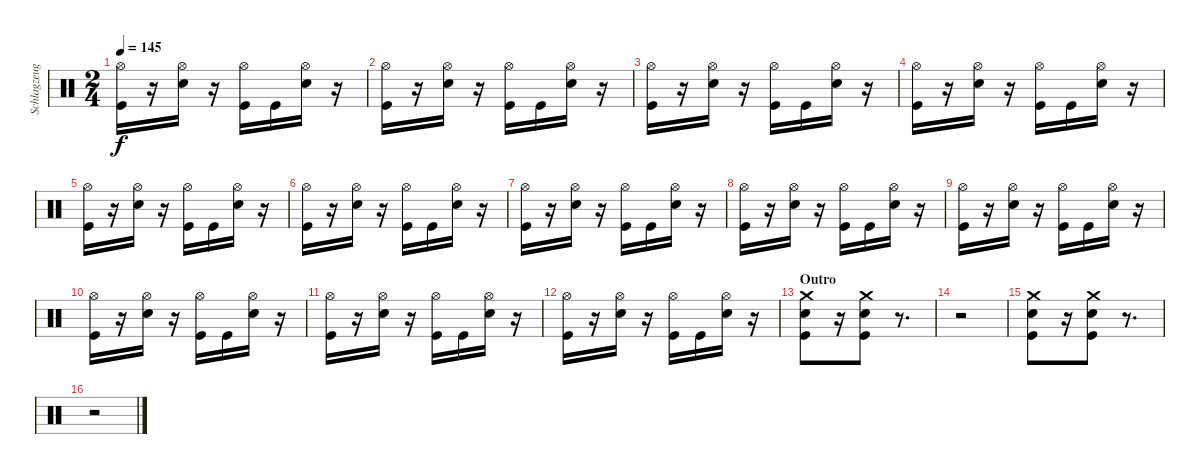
\track ("Schlagzeug - Bela B." "Schlagzeug") {instrument percussion}
\staff {score}
\articulation defaults
\ts (2 4)
\tempo 145
\clef neutral
\ks c
("Kick (hit)" "Hi-Hat (open)").16{dy f} r.16 ("Electric Snare (hit)" "Hi-Hat (open)").16 r.16 ("Kick (hit)" "Hi-Hat (open)").16 "Kick (hit)".16 ("Electric Snare (hit)" "Hi-Hat (open)").16 r.16 |
("Kick (hit)" "Hi-Hat (open)").16 r.16 ("Electric Snare (hit)" "Hi-Hat (open)").16 r.16 ("Kick (hit)" "Hi-Hat (open)").16 "Kick (hit)".16 ("Electric Snare (hit)" "Hi-Hat (open)").16 r.16 |
("Kick (hit)" "Hi-Hat (open)").16 r.16 ("Electric Snare (hit)" "Hi-Hat (open)").16 r.16 ("Kick (hit)" "Hi-Hat (open)").16 "Kick (hit)".16 ("Electric Snare (hit)" "Hi-Hat (open)").16 r.16 |
("Kick (hit)" "Hi-Hat (open)").16 r.16 ("Electric Snare (hit)" "Hi-Hat (open)").16 r.16 ("Kick (hit)" "Hi-Hat (open)").16 "Kick (hit)".16 ("Electric Snare (hit)" "Hi-Hat (open)").16 r.16 |
("Kick (hit)" "Hi-Hat (open)").16 r.16 ("Electric Snare (hit)" "Hi-Hat (open)").16 r.16 ("Kick (hit)" "Hi-Hat (open)").16 "Kick (hit)".16 ("Electric Snare (hit)" "Hi-Hat (open)").16 r.16 |
("Kick (hit)" "Hi-Hat (open)").16 r.16 ("Electric Snare (hit)" "Hi-Hat (open)").16 r.16 ("Kick (hit)" "Hi-Hat (open)").16 "Kick (hit)".16 ("Electric Snare (hit)" "Hi-Hat (open)").16 r.16 |
("Kick (hit)" "Hi-Hat (open)").16 r.16 ("Electric Snare (hit)" "Hi-Hat (open)").16 r.16 ("Kick (hit)" "Hi-Hat (open)").16 "Kick (hit)".16 ("Electric Snare (hit)" "Hi-Hat (open)").16 r.16 |
("Kick (hit)" "Hi-Hat (open)").16 r.16 ("Electric Snare (hit)" "Hi-Hat (open)").16 r.16 ("Kick (hit)" "Hi-Hat (open)").16 "Kick (hit)".16 ("Electric Snare (hit)" "Hi-Hat (open)").16 r.16 |
("Kick (hit)" "Hi-Hat (open)").16 r.16 ("Electric Snare (hit)" "Hi-Hat (open)").16 r.16 ("Kick (hit)" "Hi-Hat (open)").16 "Kick (hit)".16 ("Electric Snare (hit)" "Hi-Hat (open)").16 r.16 |
("Kick (hit)" "Hi-Hat (open)").16 r.16 ("Electric Snare (hit)" "Hi-Hat (open)").16 r.16 ("Kick (hit)" "Hi-Hat (open)").16 "Kick (hit)".16 ("Electric Snare (hit)" "Hi-Hat (open)").16 r.16 |
("Kick (hit)" "Hi-Hat (open)").16 r.16 ("Electric Snare (hit)" "Hi-Hat (open)").16 r.16 ("Kick (hit)" "Hi-Hat (open)").16 "Kick (hit)".16 ("Electric Snare (hit)" "Hi-Hat (open)").16 r.16 |
("Kick (hit)" "Hi-Hat (open)").16 r.16 ("Electric Snare (hit)" "Hi-Hat (open)").16 r.16 ("Kick (hit)" "Hi-Hat (open)").16 "Kick (hit)".16 ("Electric Snare (hit)" "Hi-Hat (open)").16 r.16 |
\section ("" "Outro")
("Kick (hit)" "Electric Snare (hit)" "Crash medium (hit)").8 r.16 ("Kick (hit)" "Crash medium (hit)" "Electric Snare (hit)").8 r.8{d} |
r.2 |
("Kick (hit)" "Electric Snare (hit)" "Crash medium (hit)").8 r.16 ("Kick (hit)" "Crash medium (hit)" "Electric Snare (hit)").8 r.8{d} |
r.2
